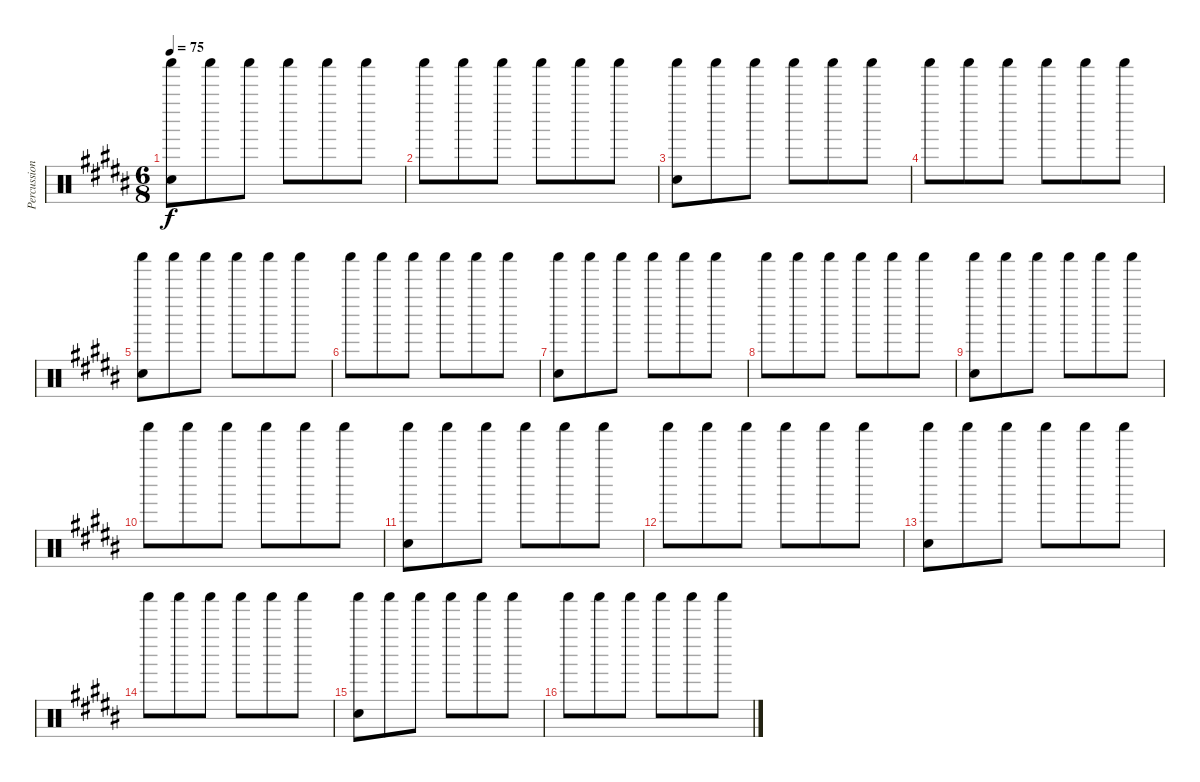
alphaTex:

\track ("Percussion" "Percussion") {instrument percussion}
\staff {score}
\articulation defaults
\ts (6 8)
\tempo 75
\clef neutral
\ks b
("Shaker (hit)" "Hand Clap (hit)").8{dy f} "Shaker (hit)".8 "Shaker (hit)".8 "Shaker (hit)".8 "Shaker (hit)".8 "Shaker (hit)".8 |
"Shaker (hit)".8 "Shaker (hit)".8 "Shaker (hit)".8 "Shaker (hit)".8 "Shaker (hit)".8 "Shaker (hit)".8 |
("Shaker (hit)" "Hand Clap (hit)").8 "Shaker (hit)".8 "Shaker (hit)".8 "Shaker (hit)".8 "Shaker (hit)".8 "Shaker (hit)".8 |
"Shaker (hit)".8 "Shaker (hit)".8 "Shaker (hit)".8 "Shaker (hit)".8 "Shaker (hit)".8 "Shaker (hit)".8 |
("Shaker (hit)" "Hand Clap (hit)").8 "Shaker (hit)".8 "Shaker (hit)".8 "Shaker (hit)".8 "Shaker (hit)".8 "Shaker (hit)".8 |
"Shaker (hit)".8 "Shaker (hit)".8 "Shaker (hit)".8 "Shaker (hit)".8 "Shaker (hit)".8 "Shaker (hit)".8 |
("Shaker (hit)" "Hand Clap (hit)").8 "Shaker (hit)".8 "Shaker (hit)".8 "Shaker (hit)".8 "Shaker (hit)".8 "Shaker (hit)".8 |
"Shaker (hit)".8 "Shaker (hit)".8 "Shaker (hit)".8 "Shaker (hit)".8 "Shaker (hit)".8 "Shaker (hit)".8 |
("Shaker (hit)" "Hand Clap (hit)").8 "Shaker (hit)".8 "Shaker (hit)".8 "Shaker (hit)".8 "Shaker (hit)".8 "Shaker (hit)".8 |
"Shaker (hit)".8 "Shaker (hit)".8 "Shaker (hit)".8 "Shaker (hit)".8 "Shaker (hit)".8 "Shaker (hit)".8 |
("Shaker (hit)" "Hand Clap (hit)").8 "Shaker (hit)".8 "Shaker (hit)".8 "Shaker (hit)".8 "Shaker (hit)".8 "Shaker (hit)".8 |
"Shaker (hit)".8 "Shaker (hit)".8 "Shaker (hit)".8 "Shaker (hit)".8 "Shaker (hit)".8 "Shaker (hit)".8 |
("Shaker (hit)" "Hand Clap (hit)").8 "Shaker (hit)".8 "Shaker (hit)".8 "Shaker (hit)".8 "Shaker (hit)".8 "Shaker (hit)".8 |
"Shaker (hit)".8 "Shaker (hit)".8 "Shaker (hit)".8 "Shaker (hit)".8 "Shaker (hit)".8 "Shaker (hit)".8 |
("Shaker (hit)" "Hand Clap (hit)").8 "Shaker (hit)".8 "Shaker (hit)".8 "Shaker (hit)".8 "Shaker (hit)".8 "Shaker (hit)".8 |
"Shaker (hit)".8 "Shaker (hit)".8 "Shaker (hit)".8 "Shaker (hit)".8 "Shaker (hit)".8 "Shaker (hit)".8
